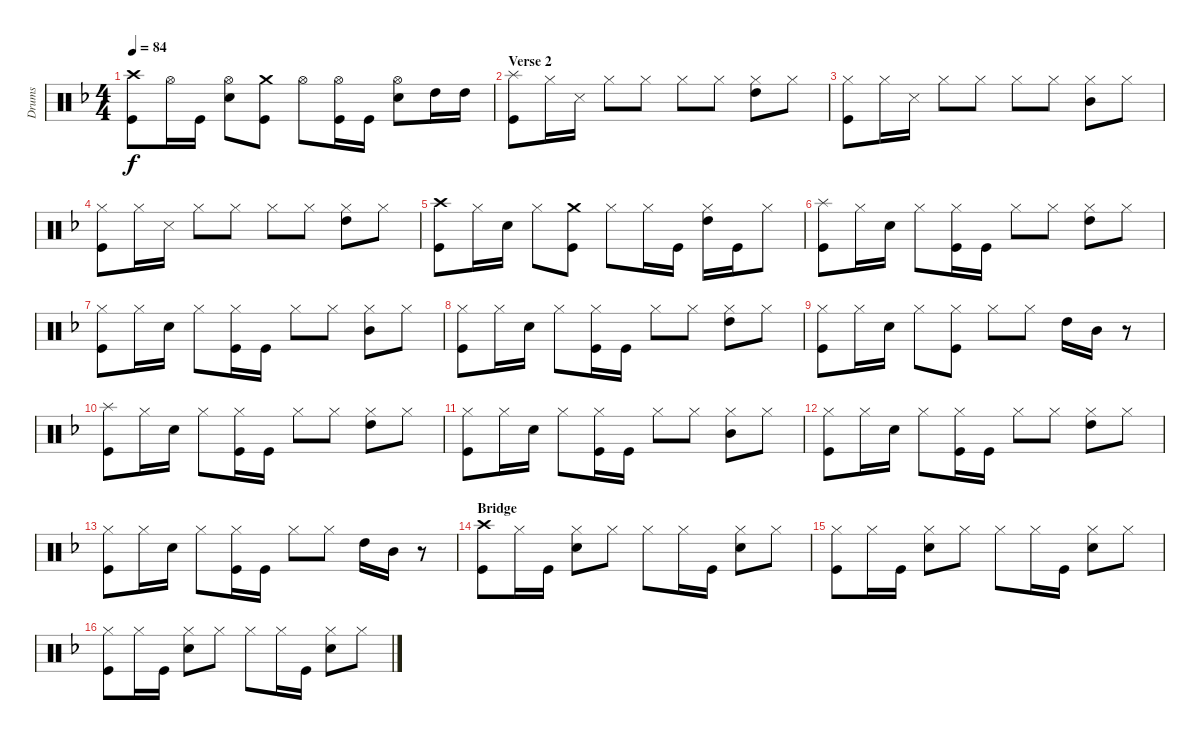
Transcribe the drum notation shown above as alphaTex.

\track ("Drums" "Drums") {instrument percussion}
\staff {score}
\articulation defaults
\ts (4 4)
\tempo 84
\clef neutral
\ks dminor
("Crash high (hit)" "Kick (hit)").8{dy f} "Hi-Hat (open)".16 "Kick (hit)".16 ("Hi-Hat (open)" "Snare (hit) 2").8 ("Crash medium (hit)" "Kick (hit)").8 "Hi-Hat (open)".8 ("Hi-Hat (open)" "Kick (hit)").16 "Kick (hit)".16 ("Hi-Hat (open)" "Snare (hit) 2").8 "High Tom (hit)".16 "High Tom (hit)".16 |
\section ("" "Verse 2")
("Splash (hit)" "Kick (hit)").8 "Hi-Hat (closed)".16 "Snare (side stick) 3".16 "Hi-Hat (closed)".8 "Hi-Hat (closed)".8 "Hi-Hat (closed)".8 "Hi-Hat (closed)".8 ("Hi-Hat (closed)" "High Tom (hit)").8 "Hi-Hat (closed)".8 |
("Hi-Hat (closed)" "Kick (hit)").8 "Hi-Hat (closed)".16 "Snare (side stick) 3".16 "Hi-Hat (closed)".8 "Hi-Hat (closed)".8 "Hi-Hat (closed)".8 "Hi-Hat (closed)".8 ("Hi-Hat (closed)" "Mid Tom (hit)").8 "Hi-Hat (closed)".8 |
("Hi-Hat (closed)" "Kick (hit)").8 "Hi-Hat (closed)".16 "Snare (side stick) 3".16 "Hi-Hat (closed)".8 "Hi-Hat (closed)".8 "Hi-Hat (closed)".8 "Hi-Hat (closed)".8 ("Hi-Hat (closed)" "High Tom (hit)").8 "Hi-Hat (closed)".8 |
("Crash high (hit)" "Kick (hit)").8 "Hi-Hat (closed)".16 "Snare (hit) 2".16 "Hi-Hat (closed)".8 ("Crash medium (hit)" "Kick (hit)").8 "Hi-Hat (closed)".8 "Hi-Hat (closed)".16 "Kick (hit)".16 ("Hi-Hat (closed)" "High Tom (hit)").16 "Kick (hit)".16 "Hi-Hat (closed)".8 |
("Splash (hit)" "Kick (hit)").8 "Hi-Hat (closed)".16 "Snare (hit) 2".16 "Hi-Hat (closed)".8 ("Hi-Hat (closed)" "Kick (hit)").16 "Kick (hit)".16 "Hi-Hat (closed)".8 "Hi-Hat (closed)".8 ("Hi-Hat (closed)" "High Tom (hit)").8 "Hi-Hat (closed)".8 |
("Hi-Hat (closed)" "Kick (hit)").8 "Hi-Hat (closed)".16 "Snare (hit) 2".16 "Hi-Hat (closed)".8 ("Hi-Hat (closed)" "Kick (hit)").16 "Kick (hit)".16 "Hi-Hat (closed)".8 "Hi-Hat (closed)".8 ("Hi-Hat (closed)" "Mid Tom (hit)").8 "Hi-Hat (closed)".8 |
("Hi-Hat (closed)" "Kick (hit)").8 "Hi-Hat (closed)".16 "Snare (hit) 2".16 "Hi-Hat (closed)".8 ("Hi-Hat (closed)" "Kick (hit)").16 "Kick (hit)".16 "Hi-Hat (closed)".8 "Hi-Hat (closed)".8 ("Hi-Hat (closed)" "High Tom (hit)").8 "Hi-Hat (closed)".8 |
("Hi-Hat (closed)" "Kick (hit)").8 "Hi-Hat (closed)".16 "Snare (hit) 2".16 "Hi-Hat (closed)".8 ("Hi-Hat (closed)" "Kick (hit)").8 "Hi-Hat (closed)".8 "Hi-Hat (closed)".8 "High Tom (hit)".16 "Mid Tom (hit)".16 r.8 |
("Splash (hit)" "Kick (hit)").8 "Hi-Hat (closed)".16 "Snare (hit) 2".16 "Hi-Hat (closed)".8 ("Hi-Hat (closed)" "Kick (hit)").16 "Kick (hit)".16 "Hi-Hat (closed)".8 "Hi-Hat (closed)".8 ("Hi-Hat (closed)" "High Tom (hit)").8 "Hi-Hat (closed)".8 |
("Hi-Hat (closed)" "Kick (hit)").8 "Hi-Hat (closed)".16 "Snare (hit) 2".16 "Hi-Hat (closed)".8 ("Hi-Hat (closed)" "Kick (hit)").16 "Kick (hit)".16 "Hi-Hat (closed)".8 "Hi-Hat (closed)".8 ("Hi-Hat (closed)" "Mid Tom (hit)").8 "Hi-Hat (closed)".8 |
("Hi-Hat (closed)" "Kick (hit)").8 "Hi-Hat (closed)".16 "Snare (hit) 2".16 "Hi-Hat (closed)".8 ("Hi-Hat (closed)" "Kick (hit)").16 "Kick (hit)".16 "Hi-Hat (closed)".8 "Hi-Hat (closed)".8 ("Hi-Hat (closed)" "High Tom (hit)").8 "Hi-Hat (closed)".8 |
("Hi-Hat (closed)" "Kick (hit)").8 "Hi-Hat (closed)".16 "Snare (hit) 2".16 "Hi-Hat (closed)".8 ("Hi-Hat (closed)" "Kick (hit)").16 "Kick (hit)".16 "Hi-Hat (closed)".8 "Hi-Hat (closed)".8 "High Tom (hit)".16 "Mid Tom (hit)".16 r.8 |
\section ("" "Bridge")
("Crash high (hit)" "Kick (hit)").8 "Hi-Hat (closed)".16 "Kick (hit)".16 ("Hi-Hat (closed)" "Snare (hit) 2").8 "Hi-Hat (closed)".8 "Hi-Hat (closed)".8 "Hi-Hat (closed)".16 "Kick (hit)".16 ("Hi-Hat (closed)" "Snare (hit) 2").8 "Hi-Hat (closed)".8 |
("Hi-Hat (closed)" "Kick (hit)").8 "Hi-Hat (closed)".16 "Kick (hit)".16 ("Hi-Hat (closed)" "Snare (hit) 2").8 "Hi-Hat (closed)".8 "Hi-Hat (closed)".8 "Hi-Hat (closed)".16 "Kick (hit)".16 ("Hi-Hat (closed)" "Snare (hit) 2").8 "Hi-Hat (closed)".8 |
("Hi-Hat (closed)" "Kick (hit)").8 "Hi-Hat (closed)".16 "Kick (hit)".16 ("Hi-Hat (closed)" "Snare (hit) 2").8 "Hi-Hat (closed)".8 "Hi-Hat (closed)".8 "Hi-Hat (closed)".16 "Kick (hit)".16 ("Hi-Hat (closed)" "Snare (hit) 2").8 "Hi-Hat (closed)".8
